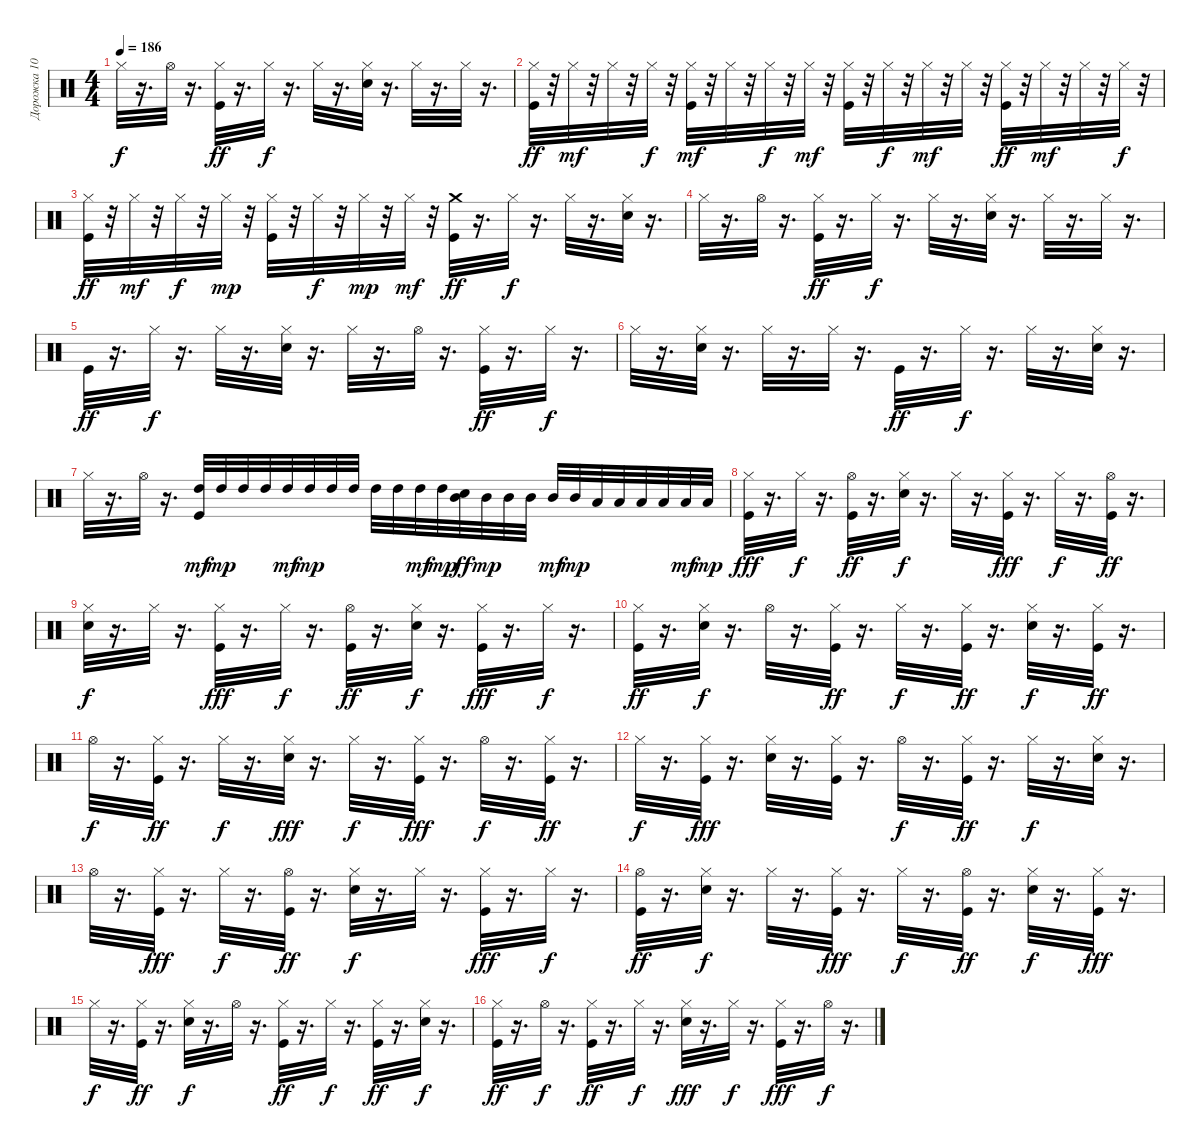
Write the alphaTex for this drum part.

\track ("Дорожка 10" "Дорожка 10") {instrument percussion}
\staff {score}
\articulation defaults
\ts (4 4)
\tempo 186
\clef neutral
\ks c "Hi-Hat (closed)".32{dy f}
r.16{d} "Hi-Hat (open)".32 r.16{d} ("Hi-Hat (closed)" "Kick (hit)").32{dy ff} r.16{d} "Hi-Hat (closed)".32{dy f} r.16{d} "Hi-Hat (closed)".32 r.16{d} ("Hi-Hat (closed)" "Electric Snare (hit)").32 r.16{d} "Hi-Hat (closed)".32 r.16{d} "Hi-Hat (closed)".32 r.16{d} |
("Kick (hit)" "Hi-Hat (closed)").32{dy ff} r.32 "Hi-Hat (closed)".32{dy mf} r.32 "Hi-Hat (closed)".32 r.32 "Hi-Hat (closed)".32{dy f} r.32 ("Kick (hit)" "Hi-Hat (closed)").32{dy mf} r.32 "Hi-Hat (closed)".32 r.32 "Hi-Hat (closed)".32{dy f} r.32 "Hi-Hat (closed)".32{dy mf} r.32 ("Hi-Hat (closed)" "Kick (hit)").32 r.32 "Hi-Hat (closed)".32{dy f} r.32 "Hi-Hat (closed)".32{dy mf} r.32 "Hi-Hat (closed)".32 r.32 ("Hi-Hat (closed)" "Kick (hit)").32{dy ff} r.32 "Hi-Hat (closed)".32{dy mf} r.32 "Hi-Hat (closed)".32 r.32 "Hi-Hat (closed)".32{dy f} r.32 |
("Hi-Hat (closed)" "Kick (hit)").32{dy ff} r.32 "Hi-Hat (closed)".32{dy mf} r.32 "Hi-Hat (closed)".32{dy f} r.32 "Hi-Hat (closed)".32{dy mp} r.32 ("Kick (hit)" "Hi-Hat (closed)").32 r.32 "Hi-Hat (closed)".32{dy f} r.32 "Hi-Hat (closed)".32{dy mp} r.32 "Hi-Hat (closed)".32{dy mf} r.32 ("Kick (hit)" "Crash medium (hit)").32{dy ff} r.16{d} "Hi-Hat (closed)".32{dy f} r.16{d} "Hi-Hat (closed)".32 r.16{d} ("Hi-Hat (closed)" "Electric Snare (hit)").32 r.16{d} |
"Hi-Hat (closed)".32 r.16{d} "Hi-Hat (open)".32 r.16{d} ("Hi-Hat (closed)" "Kick (hit)").32{dy ff} r.16{d} "Hi-Hat (closed)".32{dy f} r.16{d} "Hi-Hat (closed)".32 r.16{d} ("Electric Snare (hit)" "Hi-Hat (closed)").32 r.16{d} "Hi-Hat (closed)".32 r.16{d} "Hi-Hat (closed)".32 r.16{d} |
"Kick (hit)".32{dy ff} r.16{d} "Hi-Hat (closed)".32{dy f} r.16{d} "Hi-Hat (closed)".32 r.16{d} ("Electric Snare (hit)" "Hi-Hat (closed)").32 r.16{d} "Hi-Hat (closed)".32 r.16{d} "Hi-Hat (open)".32 r.16{d} ("Hi-Hat (closed)" "Kick (hit)").32{dy ff} r.16{d} "Hi-Hat (closed)".32{dy f} r.16{d} |
"Hi-Hat (closed)".32 r.16{d} ("Electric Snare (hit)" "Hi-Hat (closed)").32 r.16{d} "Hi-Hat (closed)".32 r.16{d} "Hi-Hat (closed)".32 r.16{d} "Kick (hit)".32{dy ff} r.16{d} "Hi-Hat (closed)".32{dy f} r.16{d} "Hi-Hat (closed)".32 r.16{d} ("Electric Snare (hit)" "Hi-Hat (closed)").32 r.16{d} |
"Hi-Hat (closed)".32 r.16{d} "Hi-Hat (open)".32 r.16{d} ("Kick (hit)" "High Tom (hit)").32{dy mf} "High Tom (hit)".32{dy mp} "High Tom (hit)".32 "High Tom (hit)".32 "High Tom (hit)".32{dy mf} "High Tom (hit)".32{dy mp} "High Tom (hit)".32 "High Tom (hit)".32 "High Tom (hit)".32 "High Tom (hit)".32 "High Tom (hit)".32{dy mf} "High Tom (hit)".32{dy mp} ("Mid Tom (hit)" "Electric Snare (hit)").32{dy ff} "Mid Tom (hit)".32{dy mp} "Mid Tom (hit)".32 "Mid Tom (hit)".32 "Mid Tom (hit)".32{dy mf} "Mid Tom (hit)".32{dy mp} "Low Tom (hit)".32 "Low Tom (hit)".32 "Low Tom (hit)".32 "Low Tom (hit)".32 "Low Tom (hit)".32{dy mf} "Low Tom (hit)".32{dy mp} |
("Hi-Hat (closed)" "Kick (hit)").32{dy fff} r.16{d} "Hi-Hat (closed)".32{dy f} r.16{d} ("Kick (hit)" "Hi-Hat (open)").32{dy ff} r.16{d} ("Hi-Hat (closed)" "Electric Snare (hit)").32{dy f} r.16{d} "Hi-Hat (closed)".32 r.16{d} ("Hi-Hat (closed)" "Kick (hit)").32{dy fff} r.16{d} "Hi-Hat (closed)".32{dy f} r.16{d} ("Hi-Hat (open)" "Kick (hit)").32{dy ff} r.16{d} |
("Hi-Hat (closed)" "Electric Snare (hit)").32{dy f} r.16{d} "Hi-Hat (closed)".32 r.16{d} ("Hi-Hat (closed)" "Kick (hit)").32{dy fff} r.16{d} "Hi-Hat (closed)".32{dy f} r.16{d} ("Kick (hit)" "Hi-Hat (open)").32{dy ff} r.16{d} ("Hi-Hat (closed)" "Electric Snare (hit)").32{dy f} r.16{d} ("Kick (hit)" "Hi-Hat (closed)").32{dy fff} r.16{d} "Hi-Hat (closed)".32{dy f} r.16{d} |
("Kick (hit)" "Hi-Hat (closed)").32{dy ff} r.16{d} ("Hi-Hat (closed)" "Electric Snare (hit)").32{dy f} r.16{d} "Hi-Hat (open)".32 r.16{d} ("Kick (hit)" "Hi-Hat (closed)").32{dy ff} r.16{d} "Hi-Hat (closed)".32{dy f} r.16{d} ("Hi-Hat (closed)" "Kick (hit)").32{dy ff} r.16{d} ("Electric Snare (hit)" "Hi-Hat (closed)").32{dy f} r.16{d} ("Kick (hit)" "Hi-Hat (closed)").32{dy ff} r.16{d} |
"Hi-Hat (open)".32{dy f} r.16{d} ("Hi-Hat (closed)" "Kick (hit)").32{dy ff} r.16{d} "Hi-Hat (closed)".32{dy f} r.16{d} ("Electric Snare (hit)" "Hi-Hat (closed)").32{dy fff} r.16{d} "Hi-Hat (closed)".32{dy f} r.16{d} ("Hi-Hat (closed)" "Kick (hit)").32{dy fff} r.16{d} "Hi-Hat (open)".32{dy f} r.16{d} ("Hi-Hat (closed)" "Kick (hit)").32{dy ff} r.16{d} |
"Hi-Hat (closed)".32{dy f} r.16{d} ("Kick (hit)" "Hi-Hat (closed)").32{dy fff} r.16{d} ("Electric Snare (hit)" "Hi-Hat (closed)").32 r.16{d} ("Kick (hit)" "Hi-Hat (closed)").32 r.16{d} "Hi-Hat (open)".32{dy f} r.16{d} ("Hi-Hat (closed)" "Kick (hit)").32{dy ff} r.16{d} "Hi-Hat (closed)".32{dy f} r.16{d} ("Hi-Hat (closed)" "Electric Snare (hit)").32 r.16{d} |
"Hi-Hat (open)".32 r.16{d} ("Hi-Hat (closed)" "Kick (hit)").32{dy fff} r.16{d} "Hi-Hat (closed)".32{dy f} r.16{d} ("Hi-Hat (open)" "Kick (hit)").32{dy ff} r.16{d} ("Hi-Hat (closed)" "Electric Snare (hit)").32{dy f} r.16{d} "Hi-Hat (closed)".32 r.16{d} ("Kick (hit)" "Hi-Hat (closed)").32{dy fff} r.16{d} "Hi-Hat (closed)".32{dy f} r.16{d} |
("Hi-Hat (open)" "Kick (hit)").32{dy ff} r.16{d} ("Hi-Hat (closed)" "Electric Snare (hit)").32{dy f} r.16{d} "Hi-Hat (closed)".32 r.16{d} ("Kick (hit)" "Hi-Hat (closed)").32{dy fff} r.16{d} "Hi-Hat (closed)".32{dy f} r.16{d} ("Hi-Hat (open)" "Kick (hit)").32{dy ff} r.16{d} ("Electric Snare (hit)" "Hi-Hat (closed)").32{dy f} r.16{d} ("Kick (hit)" "Hi-Hat (closed)").32{dy fff} r.16{d} |
"Hi-Hat (closed)".32{dy f} r.16{d} ("Kick (hit)" "Hi-Hat (closed)").32{dy ff} r.16{d} ("Hi-Hat (closed)" "Electric Snare (hit)").32{dy f} r.16{d} "Hi-Hat (open)".32 r.16{d} ("Kick (hit)" "Hi-Hat (closed)").32{dy ff} r.16{d} "Hi-Hat (closed)".32{dy f} r.16{d} ("Kick (hit)" "Hi-Hat (closed)").32{dy ff} r.16{d} ("Hi-Hat (closed)" "Electric Snare (hit)").32{dy f} r.16{d} |
("Hi-Hat (closed)" "Kick (hit)").32{dy ff} r.16{d} "Hi-Hat (open)".32{dy f} r.16{d} ("Hi-Hat (closed)" "Kick (hit)").32{dy ff} r.16{d} "Hi-Hat (closed)".32{dy f} r.16{d} ("Electric Snare (hit)" "Hi-Hat (closed)").32{dy fff} r.16{d} "Hi-Hat (closed)".32{dy f} r.16{d} ("Hi-Hat (closed)" "Kick (hit)").32{dy fff} r.16{d} "Hi-Hat (open)".32{dy f} r.16{d}
